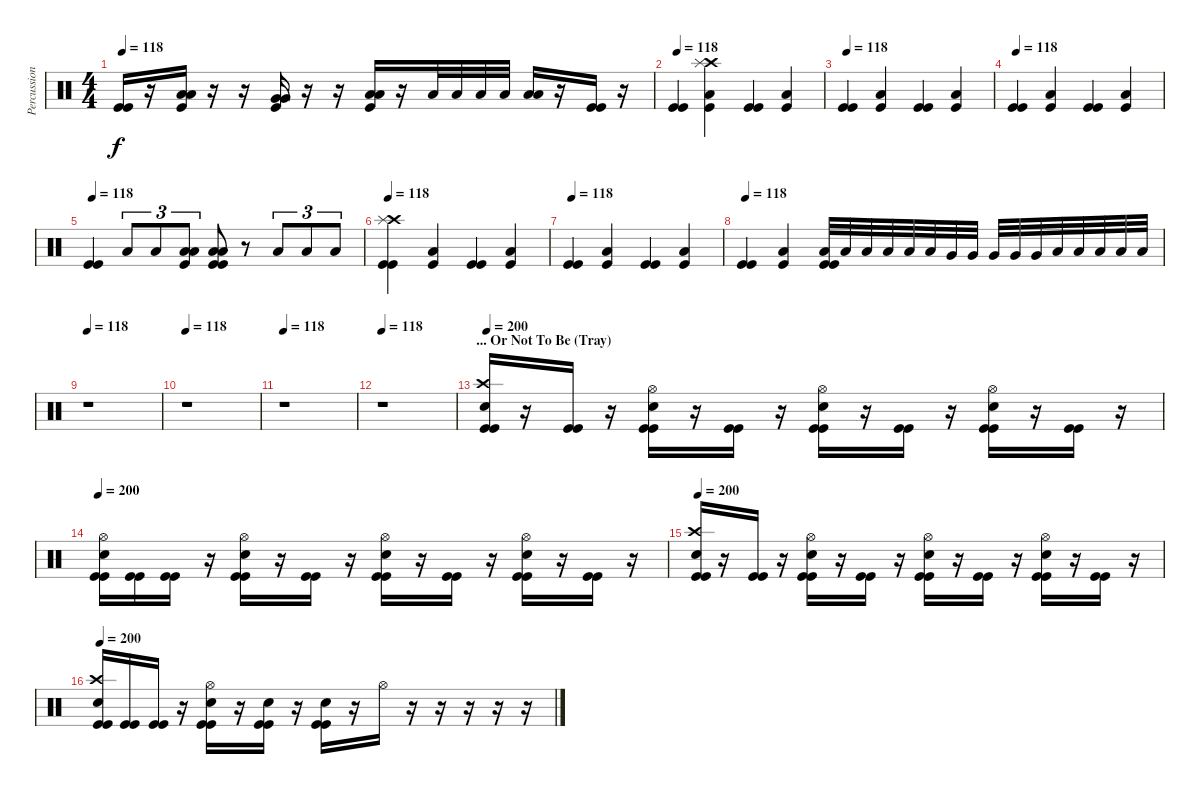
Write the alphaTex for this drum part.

\track ("Percussions" "Percussion") {instrument percussion}
\staff {score}
\articulation defaults
\ts (4 4)
\tempo 118
\clef neutral
\ks c
("Kick (hit)" "Kick (hit)").16{dy f} r.16 ("Low Tom (hit)" "Low Tom (hit)" "Kick (hit)").16 r.16 r.16 ("Very Low Tom (hit)" "Very Low Tom (hit)" "Kick (hit)").16 r.16 r.16 ("Low Floor Tom (hit)" "Low Floor Tom (hit)" "Kick (hit)").16 r.16 "Low Floor Tom (hit)".32 "Low Floor Tom (hit)".32 "Low Floor Tom (hit)".32 "Low Floor Tom (hit)".32 ("Low Floor Tom (hit)" "Low Floor Tom (hit)").16 r.16 ("Kick (hit)" "Kick (hit)").16 r.16 |
\tempo 118
("Kick (hit)" "Kick (hit)").4 ("Crash high (hit)" "Splash (hit)" "Kick (hit)" "Low Floor Tom (hit)").4 ("Kick (hit)" "Kick (hit)").4 ("Kick (hit)" "Low Floor Tom (hit)").4 |
\tempo 118
("Kick (hit)" "Kick (hit)").4 ("Kick (hit)" "Low Floor Tom (hit)").4 ("Kick (hit)" "Kick (hit)").4 ("Kick (hit)" "Low Floor Tom (hit)").4 |
\tempo 118
("Kick (hit)" "Kick (hit)").4 ("Kick (hit)" "Low Floor Tom (hit)").4 ("Kick (hit)" "Kick (hit)").4 ("Kick (hit)" "Low Floor Tom (hit)").4 |
\tempo 118
("Kick (hit)" "Kick (hit)").4 "Low Floor Tom (hit)".8{tu (3 2)} "Low Floor Tom (hit)".8{tu (3 2)} ("Low Floor Tom (hit)" "Low Floor Tom (hit)" "Kick (hit)").8{tu (3 2)} ("Low Floor Tom (hit)" "Low Floor Tom (hit)" "Kick (hit)" "Kick (hit)").8 r.8 "Low Floor Tom (hit)".8{tu (3 2)} "Low Floor Tom (hit)".8{tu (3 2)} "Low Floor Tom (hit)".8{tu (3 2)} |
\tempo 118
("Crash high (hit)" "Splash (hit)" "Kick (hit)" "Kick (hit)").4 ("Kick (hit)" "Low Floor Tom (hit)").4 ("Kick (hit)" "Kick (hit)").4 ("Kick (hit)" "Low Floor Tom (hit)").4 |
\tempo 118
("Kick (hit)" "Kick (hit)").4 ("Kick (hit)" "Low Floor Tom (hit)").4 ("Kick (hit)" "Kick (hit)").4 ("Kick (hit)" "Low Floor Tom (hit)").4 |
\tempo 118
("Kick (hit)" "Kick (hit)").4 ("Kick (hit)" "Low Floor Tom (hit)").4 ("Low Tom (hit)" "Kick (hit)" "Kick (hit)").32 "Low Tom (hit)".32 "Low Tom (hit)".32 "Low Tom (hit)".32 "Low Tom (hit)".32 "Low Tom (hit)".32 "Very Low Tom (hit)".32 "Very Low Tom (hit)".32 "Very Low Tom (hit)".32 "Very Low Tom (hit)".32 "Very Low Tom (hit)".32 "Low Floor Tom (hit)".32 "Low Floor Tom (hit)".32 "Low Floor Tom (hit)".32 "Low Floor Tom (hit)".32 "Low Floor Tom (hit)".32 |
\tempo 118
r.1 |
\tempo 118
r.1 |
\tempo 118
r.1 |
\tempo 118
r.1 |
\section ("" "... Or Not To Be (Tray)")
\tempo 200
("Crash high (hit)" "Electric Snare (hit)" "Kick (hit)" "Kick (hit)").16 r.16 ("Kick (hit)" "Kick (hit)").16 r.16 ("Hi-Hat (open)" "Electric Snare (hit)" "Kick (hit)" "Kick (hit)").16 r.16 ("Kick (hit)" "Kick (hit)").16 r.16 ("Hi-Hat (open)" "Electric Snare (hit)" "Kick (hit)" "Kick (hit)").16 r.16 ("Kick (hit)" "Kick (hit)").16 r.16 ("Hi-Hat (open)" "Electric Snare (hit)" "Kick (hit)" "Kick (hit)").16 r.16 ("Kick (hit)" "Kick (hit)").16 r.16 |
\tempo 200
("Hi-Hat (open)" "Electric Snare (hit)" "Kick (hit)" "Kick (hit)").16 ("Kick (hit)" "Kick (hit)").16 ("Kick (hit)" "Kick (hit)").16 r.16 ("Hi-Hat (open)" "Electric Snare (hit)" "Kick (hit)" "Kick (hit)").16 r.16 ("Kick (hit)" "Kick (hit)").16 r.16 ("Hi-Hat (open)" "Electric Snare (hit)" "Kick (hit)" "Kick (hit)").16 r.16 ("Kick (hit)" "Kick (hit)").16 r.16 ("Hi-Hat (open)" "Electric Snare (hit)" "Kick (hit)" "Kick (hit)").16 r.16 ("Kick (hit)" "Kick (hit)").16 r.16 |
\tempo 200
("Crash high (hit)" "Electric Snare (hit)" "Kick (hit)" "Kick (hit)").16 r.16 ("Kick (hit)" "Kick (hit)").16 r.16 ("Hi-Hat (open)" "Electric Snare (hit)" "Kick (hit)" "Kick (hit)").16 r.16 ("Kick (hit)" "Kick (hit)").16 r.16 ("Hi-Hat (open)" "Electric Snare (hit)" "Kick (hit)" "Kick (hit)").16 r.16 ("Kick (hit)" "Kick (hit)").16 r.16 ("Hi-Hat (open)" "Electric Snare (hit)" "Kick (hit)" "Kick (hit)").16 r.16 ("Kick (hit)" "Kick (hit)").16 r.16 |
\tempo 200
("Crash high (hit)" "Electric Snare (hit)" "Kick (hit)" "Kick (hit)").16 ("Kick (hit)" "Kick (hit)").16 ("Kick (hit)" "Kick (hit)").16 r.16 ("Hi-Hat (open)" "Electric Snare (hit)" "Kick (hit)" "Kick (hit)").16 r.16 ("Electric Snare (hit)" "Kick (hit)" "Kick (hit)").16 r.16 ("Electric Snare (hit)" "Kick (hit)" "Kick (hit)").16 r.16 "Hi-Hat (open)".16 r.16 r.16 r.16 r.16 r.16
